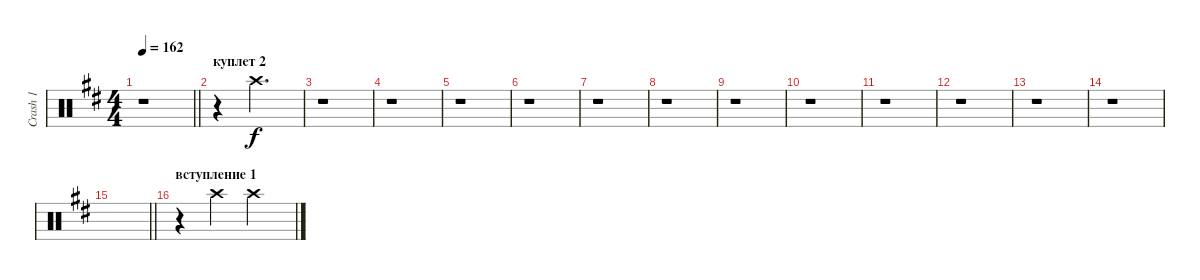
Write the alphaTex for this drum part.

\track ("Crash 1" "Crash 1") {instrument percussion}
\staff {score}
\articulation defaults
\ts (4 4)
\tempo 162
\clef neutral
\barLineRight lightlight
\ks bminor
r.1{dy f} |
\section ("" "куплет 2")
r.4 "Crash high (hit)".2{d} |
r.1 |
r.1 |
r.1 |
r.1 |
r.1 |
r.1 |
r.1 |
r.1 |
r.1 |
r.1 |
r.1 |
r.1 |
\barLineRight lightlight
|
\section ("" "вступление 1")
r.4 "Crash high (hit)".4 "Crash high (hit)".2
